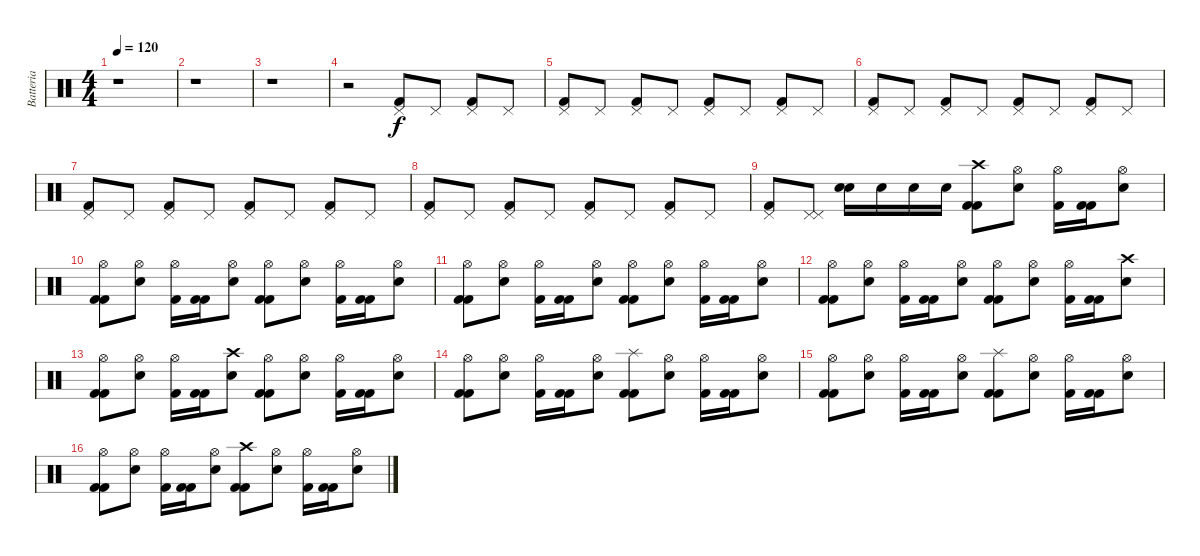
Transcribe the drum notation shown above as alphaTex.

\track ("Batteria" "Batteria") {instrument percussion}
\staff {score}
\articulation defaults
\ts (4 4)
\tempo 120
\clef neutral
\ks c
r.1{dy f} |
r.1 |
r.1 |
r.2 ("Kick (hit) 2" "Pedal Hi-Hat (hit)").8 "Pedal Hi-Hat (hit)".8 ("Kick (hit) 2" "Pedal Hi-Hat (hit)").8 "Pedal Hi-Hat (hit)".8 |
("Kick (hit) 2" "Pedal Hi-Hat (hit)").8 "Pedal Hi-Hat (hit)".8 ("Kick (hit) 2" "Pedal Hi-Hat (hit)").8 "Pedal Hi-Hat (hit)".8 ("Kick (hit) 2" "Pedal Hi-Hat (hit)").8 "Pedal Hi-Hat (hit)".8 ("Kick (hit) 2" "Pedal Hi-Hat (hit)").8 "Pedal Hi-Hat (hit)".8 |
("Kick (hit) 2" "Pedal Hi-Hat (hit)").8 "Pedal Hi-Hat (hit)".8 ("Kick (hit) 2" "Pedal Hi-Hat (hit)").8 "Pedal Hi-Hat (hit)".8 ("Pedal Hi-Hat (hit)" "Kick (hit) 2").8 "Pedal Hi-Hat (hit)".8 ("Kick (hit) 2" "Pedal Hi-Hat (hit)").8 "Pedal Hi-Hat (hit)".8 |
("Kick (hit) 2" "Pedal Hi-Hat (hit)").8 "Pedal Hi-Hat (hit)".8 ("Kick (hit) 2" "Pedal Hi-Hat (hit)").8 "Pedal Hi-Hat (hit)".8 ("Pedal Hi-Hat (hit)" "Kick (hit) 2").8 "Pedal Hi-Hat (hit)".8 ("Kick (hit) 2" "Pedal Hi-Hat (hit)").8 "Pedal Hi-Hat (hit)".8 |
("Kick (hit) 2" "Pedal Hi-Hat (hit)").8 "Pedal Hi-Hat (hit)".8 ("Kick (hit) 2" "Pedal Hi-Hat (hit)").8 "Pedal Hi-Hat (hit)".8 ("Pedal Hi-Hat (hit)" "Kick (hit) 2").8 "Pedal Hi-Hat (hit)".8 ("Kick (hit) 2" "Pedal Hi-Hat (hit)").8 "Pedal Hi-Hat (hit)".8 |
("Kick (hit) 2" "Pedal Hi-Hat (hit)").8 ("Pedal Hi-Hat (hit)" "Pedal Hi-Hat (hit)").8 ("Snare (hit) 2" "Snare (hit) 2").16 "Snare (hit) 2".16 "Snare (hit) 2".16 "Snare (hit) 2".16 ("Kick (hit) 2" "Kick (hit) 2" "Crash high (hit)").8 ("Snare (hit) 2" "Hi-Hat (open)").8 ("Kick (hit) 2" "Hi-Hat (open)").16 ("Kick (hit) 2" "Kick (hit) 2").16 ("Snare (hit) 2" "Hi-Hat (open)").8 |
("Kick (hit) 2" "Kick (hit) 2" "Hi-Hat (open)").8 ("Snare (hit) 2" "Hi-Hat (open)").8 ("Kick (hit) 2" "Hi-Hat (open)").16 ("Kick (hit) 2" "Kick (hit) 2").16 ("Snare (hit) 2" "Hi-Hat (open)").8 ("Hi-Hat (open)" "Kick (hit) 2" "Kick (hit) 2").8 ("Snare (hit) 2" "Hi-Hat (open)").8 ("Kick (hit) 2" "Hi-Hat (open)").16 ("Kick (hit) 2" "Kick (hit) 2").16 ("Snare (hit) 2" "Hi-Hat (open)").8 |
("Hi-Hat (open)" "Kick (hit) 2" "Kick (hit) 2").8 ("Snare (hit) 2" "Hi-Hat (open)").8 ("Kick (hit) 2" "Hi-Hat (open)").16 ("Kick (hit) 2" "Kick (hit) 2").16 ("Snare (hit) 2" "Hi-Hat (open)").8 ("Hi-Hat (open)" "Kick (hit) 2" "Kick (hit) 2").8 ("Snare (hit) 2" "Hi-Hat (open)").8 ("Kick (hit) 2" "Hi-Hat (open)").16 ("Kick (hit) 2" "Kick (hit) 2").16 ("Snare (hit) 2" "Hi-Hat (open)").8 |
("Hi-Hat (open)" "Kick (hit) 2" "Kick (hit) 2").8 ("Snare (hit) 2" "Hi-Hat (open)").8 ("Kick (hit) 2" "Hi-Hat (open)").16 ("Kick (hit) 2" "Kick (hit) 2").16 ("Snare (hit) 2" "Hi-Hat (open)").8 ("Kick (hit) 2" "Kick (hit) 2" "Hi-Hat (open)").8 ("Snare (hit) 2" "Hi-Hat (open)").8 ("Kick (hit) 2" "Hi-Hat (open)").16 ("Kick (hit) 2" "Kick (hit) 2").16 ("Crash high (hit)" "Snare (hit) 2").8 |
("Hi-Hat (open)" "Kick (hit) 2" "Kick (hit) 2").8 ("Snare (hit) 2" "Hi-Hat (open)").8 ("Kick (hit) 2" "Hi-Hat (open)").16 ("Kick (hit) 2" "Kick (hit) 2").16 ("Crash high (hit)" "Snare (hit) 2").8 ("Kick (hit) 2" "Kick (hit) 2" "Hi-Hat (open)").8 ("Snare (hit) 2" "Hi-Hat (open)").8 ("Kick (hit) 2" "Hi-Hat (open)").16 ("Kick (hit) 2" "Kick (hit) 2").16 ("Snare (hit) 2" "Hi-Hat (open)").8 |
("Hi-Hat (open)" "Kick (hit) 2" "Kick (hit) 2").8 ("Snare (hit) 2" "Hi-Hat (open)").8 ("Kick (hit) 2" "Hi-Hat (open)").16 ("Kick (hit) 2" "Kick (hit) 2").16 ("Snare (hit) 2" "Hi-Hat (open)").8 ("Kick (hit) 2" "Kick (hit) 2" "Splash (hit)").8 ("Snare (hit) 2" "Hi-Hat (open)").8 ("Kick (hit) 2" "Hi-Hat (open)").16 ("Kick (hit) 2" "Kick (hit) 2").16 ("Snare (hit) 2" "Hi-Hat (open)").8 |
("Hi-Hat (open)" "Kick (hit) 2" "Kick (hit) 2").8 ("Snare (hit) 2" "Hi-Hat (open)").8 ("Kick (hit) 2" "Hi-Hat (open)").16 ("Kick (hit) 2" "Kick (hit) 2").16 ("Snare (hit) 2" "Hi-Hat (open)").8 ("Kick (hit) 2" "Kick (hit) 2" "Splash (hit)").8 ("Snare (hit) 2" "Hi-Hat (open)").8 ("Kick (hit) 2" "Hi-Hat (open)").16 ("Kick (hit) 2" "Kick (hit) 2").16 ("Snare (hit) 2" "Hi-Hat (open)").8 |
("Hi-Hat (open)" "Kick (hit) 2" "Kick (hit) 2").8 ("Snare (hit) 2" "Hi-Hat (open)").8 ("Kick (hit) 2" "Hi-Hat (open)").16 ("Kick (hit) 2" "Kick (hit) 2").16 ("Snare (hit) 2" "Hi-Hat (open)").8 ("Kick (hit) 2" "Kick (hit) 2" "Crash high (hit)").8 ("Snare (hit) 2" "Hi-Hat (open)").8 ("Kick (hit) 2" "Hi-Hat (open)").16 ("Kick (hit) 2" "Kick (hit) 2").16 ("Snare (hit) 2" "Hi-Hat (open)").8
